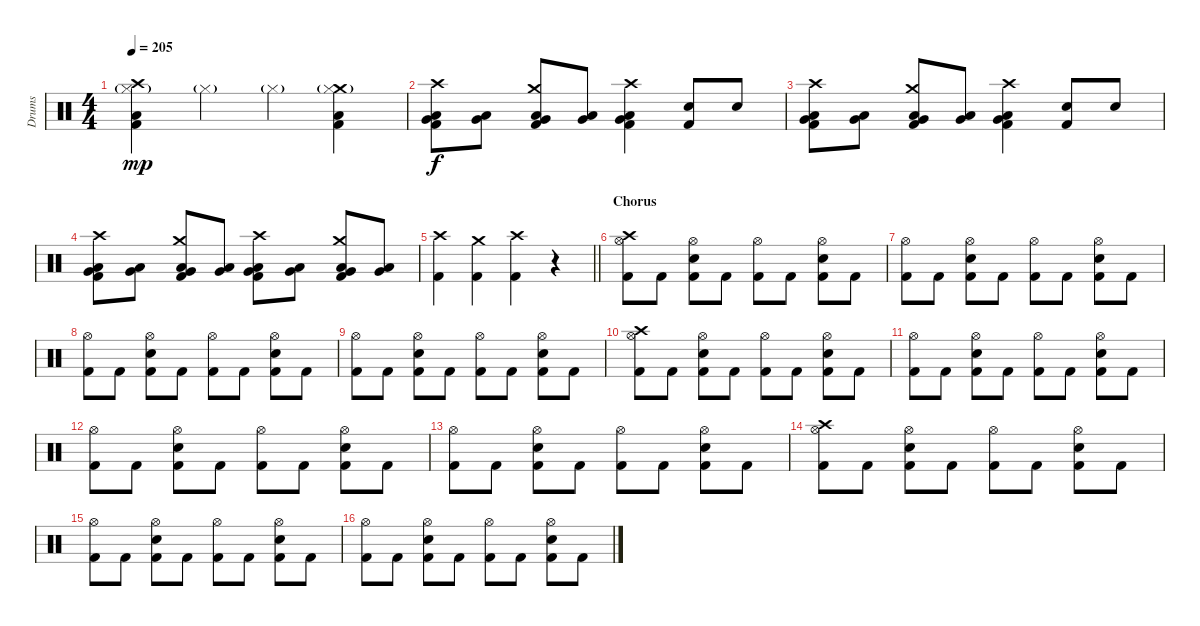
\track ("Drums" "Drums") {instrument percussion}
\staff {score}
\articulation defaults
\ts (4 4)
\tempo 205
\clef neutral
\ks c
("Crash high (hit)" "Hi-Hat (closed)"{g} "Low Floor Tom (hit)" "Kick (hit) 2").4{dy mp} "Hi-Hat (closed)"{g}.4 "Hi-Hat (closed)"{g}.4 ("Crash medium (hit)" "Hi-Hat (closed)"{g} "Low Floor Tom (hit)" "Kick (hit) 2").4 |
("Crash high (hit)" "Very Low Tom (hit)" "Low Floor Tom (hit)" "Kick (hit) 2").8{dy f} ("Very Low Tom (hit)" "Low Floor Tom (hit)").8 ("Crash medium (hit)" "Very Low Tom (hit)" "Low Floor Tom (hit)" "Kick (hit) 2").8 ("Very Low Tom (hit)" "Low Floor Tom (hit)").8 ("Crash high (hit)" "Very Low Tom (hit)" "Low Floor Tom (hit)" "Kick (hit) 2").4 ("Snare (hit) 2" "Kick (hit) 2").8 "Snare (hit) 2".8 |
("Crash high (hit)" "Very Low Tom (hit)" "Low Floor Tom (hit)" "Kick (hit) 2").8 ("Very Low Tom (hit)" "Low Floor Tom (hit)").8 ("Crash medium (hit)" "Very Low Tom (hit)" "Low Floor Tom (hit)" "Kick (hit) 2").8 ("Very Low Tom (hit)" "Low Floor Tom (hit)").8 ("Crash high (hit)" "Very Low Tom (hit)" "Low Floor Tom (hit)" "Kick (hit) 2").4 ("Snare (hit) 2" "Kick (hit) 2").8 "Snare (hit) 2".8 |
("Crash high (hit)" "Very Low Tom (hit)" "Low Floor Tom (hit)" "Kick (hit) 2").8 ("Very Low Tom (hit)" "Low Floor Tom (hit)").8 ("Crash medium (hit)" "Very Low Tom (hit)" "Low Floor Tom (hit)" "Kick (hit) 2").8 ("Very Low Tom (hit)" "Low Floor Tom (hit)").8 ("Crash high (hit)" "Very Low Tom (hit)" "Low Floor Tom (hit)" "Kick (hit) 2").8 ("Very Low Tom (hit)" "Low Floor Tom (hit)").8 ("Crash medium (hit)" "Very Low Tom (hit)" "Low Floor Tom (hit)" "Kick (hit) 2").8 ("Very Low Tom (hit)" "Low Floor Tom (hit)").8 |
\barLineRight lightlight
("Crash high (hit)" "Kick (hit) 2").4 ("Crash medium (hit)" "Kick (hit) 2").4 ("Crash high (hit)" "Kick (hit) 2").4 r.4 |
\section ("" "Chorus")
("Crash high (hit)" "Hi-Hat (open)" "Kick (hit) 2").8 "Kick (hit) 2".8 ("Hi-Hat (open)" "Snare (hit) 2" "Kick (hit) 2").8 "Kick (hit) 2".8 ("Hi-Hat (open)" "Kick (hit) 2").8 "Kick (hit) 2".8 ("Hi-Hat (open)" "Snare (hit) 2" "Kick (hit) 2").8 "Kick (hit) 2".8 |
("Hi-Hat (open)" "Kick (hit) 2").8 "Kick (hit) 2".8 ("Hi-Hat (open)" "Snare (hit) 2" "Kick (hit) 2").8 "Kick (hit) 2".8 ("Hi-Hat (open)" "Kick (hit) 2").8 "Kick (hit) 2".8 ("Hi-Hat (open)" "Snare (hit) 2" "Kick (hit) 2").8 "Kick (hit) 2".8 |
("Hi-Hat (open)" "Kick (hit) 2").8 "Kick (hit) 2".8 ("Hi-Hat (open)" "Snare (hit) 2" "Kick (hit) 2").8 "Kick (hit) 2".8 ("Hi-Hat (open)" "Kick (hit) 2").8 "Kick (hit) 2".8 ("Hi-Hat (open)" "Snare (hit) 2" "Kick (hit) 2").8 "Kick (hit) 2".8 |
("Hi-Hat (open)" "Kick (hit) 2").8 "Kick (hit) 2".8 ("Hi-Hat (open)" "Snare (hit) 2" "Kick (hit) 2").8 "Kick (hit) 2".8 ("Hi-Hat (open)" "Kick (hit) 2").8 "Kick (hit) 2".8 ("Hi-Hat (open)" "Snare (hit) 2" "Kick (hit) 2").8 "Kick (hit) 2".8 |
("Crash high (hit)" "Hi-Hat (open)" "Kick (hit) 2").8 "Kick (hit) 2".8 ("Hi-Hat (open)" "Snare (hit) 2" "Kick (hit) 2").8 "Kick (hit) 2".8 ("Hi-Hat (open)" "Kick (hit) 2").8 "Kick (hit) 2".8 ("Hi-Hat (open)" "Snare (hit) 2" "Kick (hit) 2").8 "Kick (hit) 2".8 |
("Hi-Hat (open)" "Kick (hit) 2").8 "Kick (hit) 2".8 ("Hi-Hat (open)" "Snare (hit) 2" "Kick (hit) 2").8 "Kick (hit) 2".8 ("Hi-Hat (open)" "Kick (hit) 2").8 "Kick (hit) 2".8 ("Hi-Hat (open)" "Snare (hit) 2" "Kick (hit) 2").8 "Kick (hit) 2".8 |
("Hi-Hat (open)" "Kick (hit) 2").8 "Kick (hit) 2".8 ("Hi-Hat (open)" "Snare (hit) 2" "Kick (hit) 2").8 "Kick (hit) 2".8 ("Hi-Hat (open)" "Kick (hit) 2").8 "Kick (hit) 2".8 ("Hi-Hat (open)" "Snare (hit) 2" "Kick (hit) 2").8 "Kick (hit) 2".8 |
("Hi-Hat (open)" "Kick (hit) 2").8 "Kick (hit) 2".8 ("Hi-Hat (open)" "Snare (hit) 2" "Kick (hit) 2").8 "Kick (hit) 2".8 ("Hi-Hat (open)" "Kick (hit) 2").8 "Kick (hit) 2".8 ("Hi-Hat (open)" "Snare (hit) 2" "Kick (hit) 2").8 "Kick (hit) 2".8 |
("Crash high (hit)" "Hi-Hat (open)" "Kick (hit) 2").8 "Kick (hit) 2".8 ("Hi-Hat (open)" "Snare (hit) 2" "Kick (hit) 2").8 "Kick (hit) 2".8 ("Hi-Hat (open)" "Kick (hit) 2").8 "Kick (hit) 2".8 ("Hi-Hat (open)" "Snare (hit) 2" "Kick (hit) 2").8 "Kick (hit) 2".8 |
("Hi-Hat (open)" "Kick (hit) 2").8 "Kick (hit) 2".8 ("Hi-Hat (open)" "Snare (hit) 2" "Kick (hit) 2").8 "Kick (hit) 2".8 ("Hi-Hat (open)" "Kick (hit) 2").8 "Kick (hit) 2".8 ("Hi-Hat (open)" "Snare (hit) 2" "Kick (hit) 2").8 "Kick (hit) 2".8 |
("Hi-Hat (open)" "Kick (hit) 2").8 "Kick (hit) 2".8 ("Hi-Hat (open)" "Snare (hit) 2" "Kick (hit) 2").8 "Kick (hit) 2".8 ("Hi-Hat (open)" "Kick (hit) 2").8 "Kick (hit) 2".8 ("Hi-Hat (open)" "Snare (hit) 2" "Kick (hit) 2").8 "Kick (hit) 2".8
